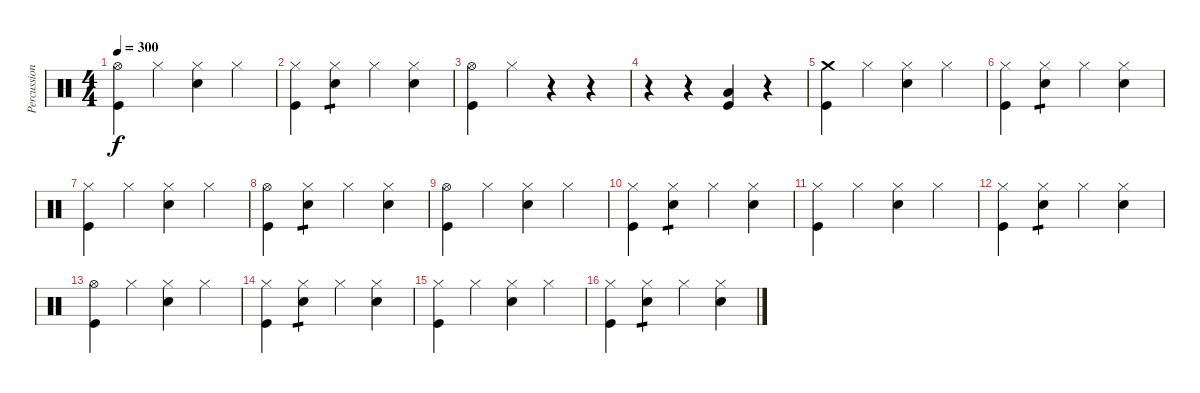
\track ("Percussion" "Percussion") {instrument percussion}
\staff {score}
\articulation defaults
\ts (4 4)
\tempo 300
\clef neutral
\ks c
("Kick (hit)" "Hi-Hat (open)").4{dy f} "Hi-Hat (closed)".4 ("Electric Snare (hit)" "Hi-Hat (closed)").4 "Hi-Hat (closed)".4 |
("Kick (hit)" "Hi-Hat (closed)").4 ("Electric Snare (hit)" "Hi-Hat (closed)").4{tp 1} "Hi-Hat (closed)".4 ("Electric Snare (hit)" "Hi-Hat (closed)").4 |
("Kick (hit)" "Hi-Hat (open)").4 "Hi-Hat (closed)".4 r.4 r.4 |
r.4 r.4 ("Kick (hit)" "Low Floor Tom (hit)").4 r.4 |
("Kick (hit)" "Crash medium (hit)").4 "Hi-Hat (closed)".4 ("Electric Snare (hit)" "Hi-Hat (closed)").4 "Hi-Hat (closed)".4 |
("Kick (hit)" "Hi-Hat (closed)").4 ("Electric Snare (hit)" "Hi-Hat (closed)").4{tp 1} "Hi-Hat (closed)".4 ("Electric Snare (hit)" "Hi-Hat (closed)").4 |
("Kick (hit)" "Hi-Hat (closed)").4 "Hi-Hat (closed)".4 ("Electric Snare (hit)" "Hi-Hat (closed)").4 "Hi-Hat (closed)".4 |
("Kick (hit)" "Hi-Hat (open)").4 ("Electric Snare (hit)" "Hi-Hat (closed)").4{tp 1} "Hi-Hat (closed)".4 ("Electric Snare (hit)" "Hi-Hat (closed)").4 |
("Kick (hit)" "Hi-Hat (open)").4 "Hi-Hat (closed)".4 ("Electric Snare (hit)" "Hi-Hat (closed)").4 "Hi-Hat (closed)".4 |
("Kick (hit)" "Hi-Hat (closed)").4 ("Electric Snare (hit)" "Hi-Hat (closed)").4{tp 1} "Hi-Hat (closed)".4 ("Electric Snare (hit)" "Hi-Hat (closed)").4 |
("Kick (hit)" "Hi-Hat (closed)").4 "Hi-Hat (closed)".4 ("Electric Snare (hit)" "Hi-Hat (closed)").4 "Hi-Hat (closed)".4 |
("Kick (hit)" "Hi-Hat (closed)").4 ("Electric Snare (hit)" "Hi-Hat (closed)").4{tp 1} "Hi-Hat (closed)".4 ("Electric Snare (hit)" "Hi-Hat (closed)").4 |
("Kick (hit)" "Hi-Hat (open)").4 "Hi-Hat (closed)".4 ("Electric Snare (hit)" "Hi-Hat (closed)").4 "Hi-Hat (closed)".4 |
("Kick (hit)" "Hi-Hat (closed)").4 ("Electric Snare (hit)" "Hi-Hat (closed)").4{tp 1} "Hi-Hat (closed)".4 ("Electric Snare (hit)" "Hi-Hat (closed)").4 |
("Kick (hit)" "Hi-Hat (closed)").4 "Hi-Hat (closed)".4 ("Electric Snare (hit)" "Hi-Hat (closed)").4 "Hi-Hat (closed)".4 |
("Kick (hit)" "Hi-Hat (closed)").4 ("Electric Snare (hit)" "Hi-Hat (closed)").4{tp 1} "Hi-Hat (closed)".4 ("Electric Snare (hit)" "Hi-Hat (closed)").4
